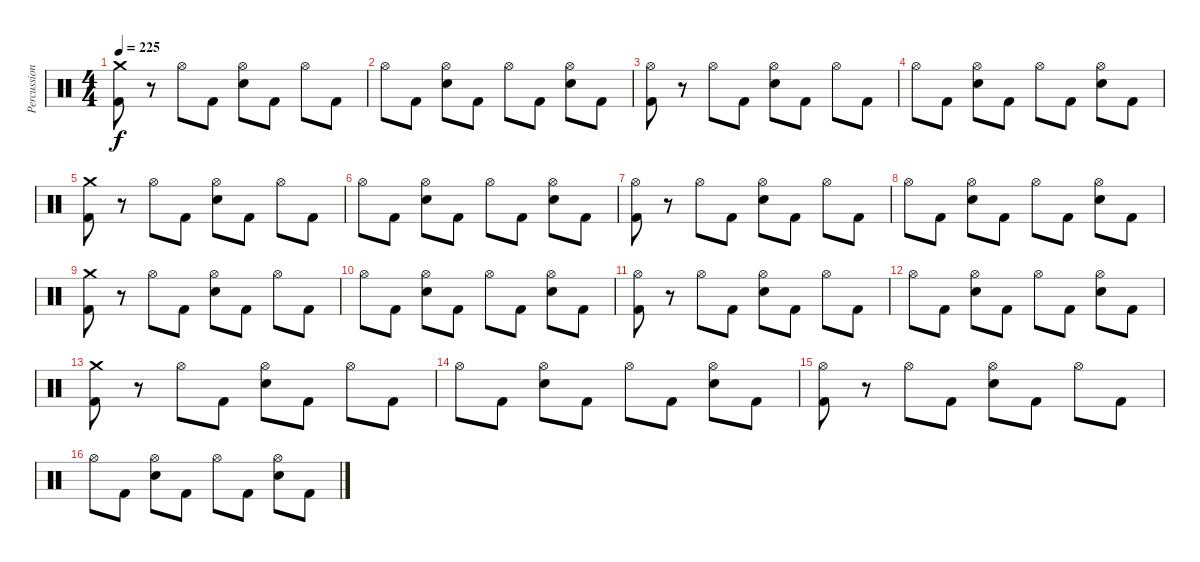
\track ("Percussion" "Percussion") {instrument percussion}
\staff {score}
\articulation defaults
\ts (4 4)
\tempo 225
\clef neutral
\ks c
("Crash medium (hit)" "Kick (hit) 2").8{dy f} r.8 "Hi-Hat (open)".8 "Kick (hit) 2".8 ("Hi-Hat (open)" "Electric Snare (hit)").8 "Kick (hit) 2".8 "Hi-Hat (open)".8 "Kick (hit) 2".8 |
"Hi-Hat (open)".8 "Kick (hit) 2".8 ("Hi-Hat (open)" "Electric Snare (hit)").8 "Kick (hit) 2".8 "Hi-Hat (open)".8 "Kick (hit) 2".8 ("Hi-Hat (open)" "Electric Snare (hit)").8 "Kick (hit) 2".8 |
("Hi-Hat (open)" "Kick (hit) 2").8 r.8 "Hi-Hat (open)".8 "Kick (hit) 2".8 ("Hi-Hat (open)" "Electric Snare (hit)").8 "Kick (hit) 2".8 "Hi-Hat (open)".8 "Kick (hit) 2".8 |
"Hi-Hat (open)".8 "Kick (hit) 2".8 ("Hi-Hat (open)" "Electric Snare (hit)").8 "Kick (hit) 2".8 "Hi-Hat (open)".8 "Kick (hit) 2".8 ("Hi-Hat (open)" "Electric Snare (hit)").8 "Kick (hit) 2".8 |
("Crash medium (hit)" "Kick (hit) 2").8 r.8 "Hi-Hat (open)".8 "Kick (hit) 2".8 ("Hi-Hat (open)" "Electric Snare (hit)").8 "Kick (hit) 2".8 "Hi-Hat (open)".8 "Kick (hit) 2".8 |
"Hi-Hat (open)".8 "Kick (hit) 2".8 ("Hi-Hat (open)" "Electric Snare (hit)").8 "Kick (hit) 2".8 "Hi-Hat (open)".8 "Kick (hit) 2".8 ("Hi-Hat (open)" "Electric Snare (hit)").8 "Kick (hit) 2".8 |
("Hi-Hat (open)" "Kick (hit) 2").8 r.8 "Hi-Hat (open)".8 "Kick (hit) 2".8 ("Hi-Hat (open)" "Electric Snare (hit)").8 "Kick (hit) 2".8 "Hi-Hat (open)".8 "Kick (hit) 2".8 |
"Hi-Hat (open)".8 "Kick (hit) 2".8 ("Hi-Hat (open)" "Electric Snare (hit)").8 "Kick (hit) 2".8 "Hi-Hat (open)".8 "Kick (hit) 2".8 ("Hi-Hat (open)" "Electric Snare (hit)").8 "Kick (hit) 2".8 |
("Crash medium (hit)" "Kick (hit) 2").8 r.8 "Hi-Hat (open)".8 "Kick (hit) 2".8 ("Hi-Hat (open)" "Electric Snare (hit)").8 "Kick (hit) 2".8 "Hi-Hat (open)".8 "Kick (hit) 2".8 |
"Hi-Hat (open)".8 "Kick (hit) 2".8 ("Hi-Hat (open)" "Electric Snare (hit)").8 "Kick (hit) 2".8 "Hi-Hat (open)".8 "Kick (hit) 2".8 ("Hi-Hat (open)" "Electric Snare (hit)").8 "Kick (hit) 2".8 |
("Hi-Hat (open)" "Kick (hit) 2").8 r.8 "Hi-Hat (open)".8 "Kick (hit) 2".8 ("Hi-Hat (open)" "Electric Snare (hit)").8 "Kick (hit) 2".8 "Hi-Hat (open)".8 "Kick (hit) 2".8 |
"Hi-Hat (open)".8 "Kick (hit) 2".8 ("Hi-Hat (open)" "Electric Snare (hit)").8 "Kick (hit) 2".8 "Hi-Hat (open)".8 "Kick (hit) 2".8 ("Hi-Hat (open)" "Electric Snare (hit)").8 "Kick (hit) 2".8 |
("Crash medium (hit)" "Kick (hit) 2").8 r.8 "Hi-Hat (open)".8 "Kick (hit) 2".8 ("Hi-Hat (open)" "Electric Snare (hit)").8 "Kick (hit) 2".8 "Hi-Hat (open)".8 "Kick (hit) 2".8 |
"Hi-Hat (open)".8 "Kick (hit) 2".8 ("Hi-Hat (open)" "Electric Snare (hit)").8 "Kick (hit) 2".8 "Hi-Hat (open)".8 "Kick (hit) 2".8 ("Hi-Hat (open)" "Electric Snare (hit)").8 "Kick (hit) 2".8 |
("Hi-Hat (open)" "Kick (hit) 2").8 r.8 "Hi-Hat (open)".8 "Kick (hit) 2".8 ("Hi-Hat (open)" "Electric Snare (hit)").8 "Kick (hit) 2".8 "Hi-Hat (open)".8 "Kick (hit) 2".8 |
"Hi-Hat (open)".8 "Kick (hit) 2".8 ("Hi-Hat (open)" "Electric Snare (hit)").8 "Kick (hit) 2".8 "Hi-Hat (open)".8 "Kick (hit) 2".8 ("Hi-Hat (open)" "Electric Snare (hit)").8 "Kick (hit) 2".8
